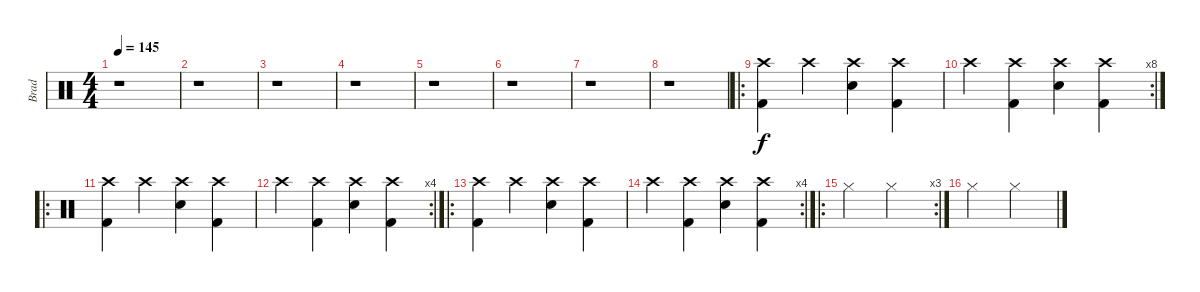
\track ("Brad" "Brad") {instrument percussion}
\staff {score}
\articulation defaults
\ts (4 4)
\tempo 145
\clef neutral
\ks c
r.1{dy f} |
r.1 |
r.1 |
r.1 |
r.1 |
r.1 |
r.1 |
r.1 |
\ro
("Kick (hit) 2" "Crash high (hit)").4 "Crash high (hit)".4 ("Snare (hit) 2" "Crash high (hit)").4 ("Kick (hit) 2" "Crash high (hit)").4 |
\rc 8 "Crash high (hit)".4
("Kick (hit) 2" "Crash high (hit)").4 ("Snare (hit) 2" "Crash high (hit)").4 ("Kick (hit) 2" "Crash high (hit)").4 |
\ro
("Kick (hit) 2" "Crash high (hit)").4 "Crash high (hit)".4 ("Snare (hit) 2" "Crash high (hit)").4 ("Kick (hit) 2" "Crash high (hit)").4 |
\rc 4 "Crash high (hit)".4
("Kick (hit) 2" "Crash high (hit)").4 ("Snare (hit) 2" "Crash high (hit)").4 ("Kick (hit) 2" "Crash high (hit)").4 |
\ro
("Kick (hit) 2" "Crash high (hit)").4 "Crash high (hit)".4 ("Snare (hit) 2" "Crash high (hit)").4 ("Kick (hit) 2" "Crash high (hit)").4 |
\rc 4 "Crash high (hit)".4
("Kick (hit) 2" "Crash high (hit)").4 ("Snare (hit) 2" "Crash high (hit)").4 ("Kick (hit) 2" "Crash high (hit)").4 |
\ro
\rc 3 "Hi-Hat (closed)".2 "Hi-Hat (closed)".2
|
"Hi-Hat (closed)".2 "Hi-Hat (closed)".2
